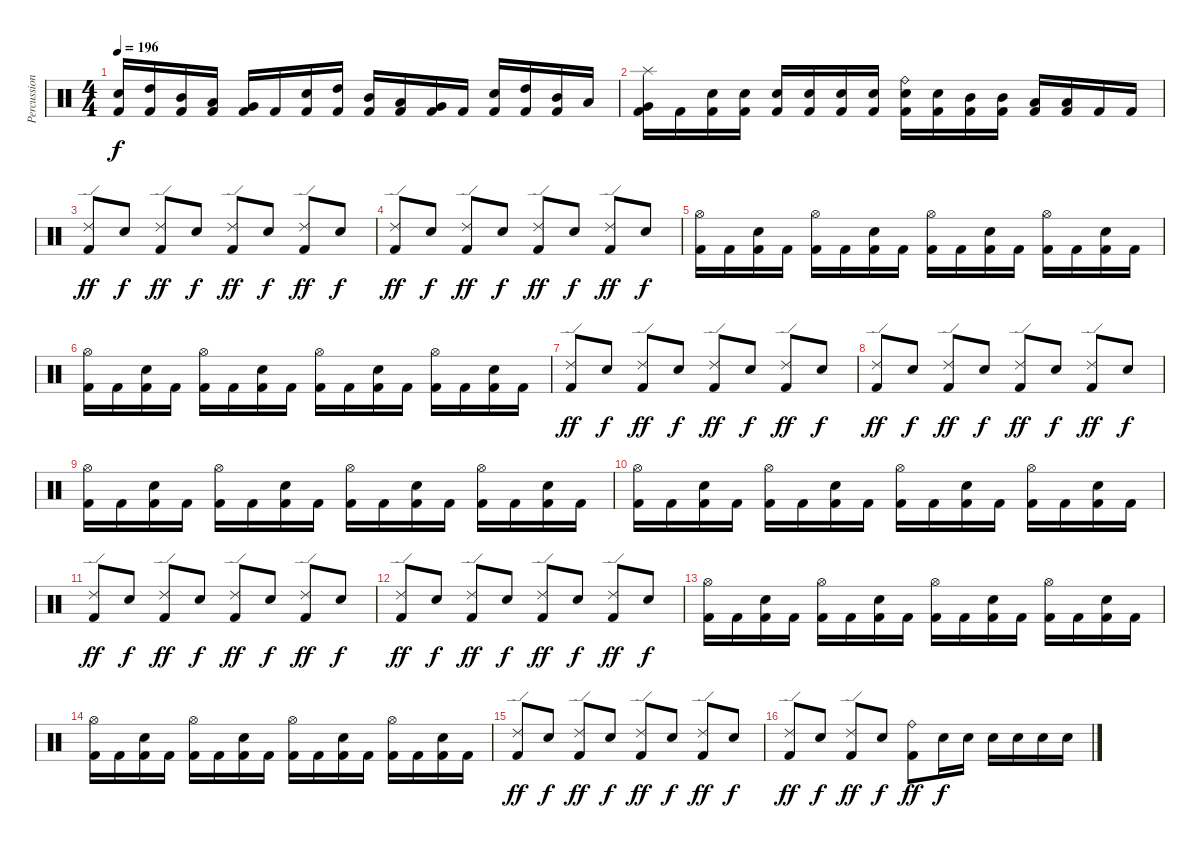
\track ("Percussions" "Percussion") {instrument percussion}
\staff {score}
\articulation defaults
\ts (4 4)
\tempo 196
\clef neutral
\ks c
("Electric Snare (hit)" "Kick (hit) 2").16{dy f} ("High Tom (hit)" "Kick (hit) 2").16 ("Mid Tom (hit)" "Kick (hit) 2").16 ("Low Tom (hit)" "Kick (hit) 2").16 ("Very Low Tom (hit)" "Kick (hit) 2").16 "Kick (hit) 2".16 ("Electric Snare (hit)" "Kick (hit) 2").16 ("High Tom (hit)" "Kick (hit) 2").16 ("Mid Tom (hit)" "Kick (hit) 2").16 ("Low Tom (hit)" "Kick (hit) 2").16 ("Very Low Tom (hit)" "Kick (hit) 2").16 "Kick (hit) 2".16 ("Electric Snare (hit)" "Kick (hit) 2").16 ("High Tom (hit)" "Kick (hit) 2").16 ("Mid Tom (hit)" "Kick (hit) 2").16 "Low Tom (hit)".16 |
("Splash (hit)" "Very Low Tom (hit)" "Kick (hit) 2").16 "Kick (hit) 2".16 ("Electric Snare (hit)" "Kick (hit) 2").16 ("Electric Snare (hit)" "Kick (hit) 2").16 ("Electric Snare (hit)" "Kick (hit) 2").16 ("Electric Snare (hit)" "Kick (hit) 2").16 ("Electric Snare (hit)" "Kick (hit) 2").16 ("Electric Snare (hit)" "Kick (hit) 2").16 ("Ride (bell)" "Electric Snare (hit)" "Kick (hit) 2").16 ("Electric Snare (hit)" "Kick (hit) 2").16 ("Mid Tom (hit)" "Kick (hit) 2").16 ("Mid Tom (hit)" "Kick (hit) 2").16 ("Low Tom (hit)" "Kick (hit) 2").16 ("Low Tom (hit)" "Kick (hit) 2").16 "Kick (hit) 2".16 "Kick (hit) 2".16 |
("Ride (edge) 2" "Kick (hit) 2").8{dy ff} "Electric Snare (hit)".8{dy f} ("Ride (edge) 2" "Kick (hit) 2").8{dy ff} "Electric Snare (hit)".8{dy f} ("Ride (edge) 2" "Kick (hit) 2").8{dy ff} "Electric Snare (hit)".8{dy f} ("Ride (edge) 2" "Kick (hit) 2").8{dy ff} "Electric Snare (hit)".8{dy f} |
("Ride (edge) 2" "Kick (hit) 2").8{dy ff} "Electric Snare (hit)".8{dy f} ("Ride (edge) 2" "Kick (hit) 2").8{dy ff} "Electric Snare (hit)".8{dy f} ("Ride (edge) 2" "Kick (hit) 2").8{dy ff} "Electric Snare (hit)".8{dy f} ("Ride (edge) 2" "Kick (hit) 2").8{dy ff} "Electric Snare (hit)".8{dy f} |
("Hi-Hat (open)" "Kick (hit) 2").16 "Kick (hit) 2".16 ("Electric Snare (hit)" "Kick (hit) 2").16 "Kick (hit) 2".16 ("Hi-Hat (open)" "Kick (hit) 2").16 "Kick (hit) 2".16 ("Electric Snare (hit)" "Kick (hit) 2").16 "Kick (hit) 2".16 ("Hi-Hat (open)" "Kick (hit) 2").16 "Kick (hit) 2".16 ("Electric Snare (hit)" "Kick (hit) 2").16 "Kick (hit) 2".16 ("Hi-Hat (open)" "Kick (hit) 2").16 "Kick (hit) 2".16 ("Electric Snare (hit)" "Kick (hit) 2").16 "Kick (hit) 2".16 |
("Hi-Hat (open)" "Kick (hit) 2").16 "Kick (hit) 2".16 ("Electric Snare (hit)" "Kick (hit) 2").16 "Kick (hit) 2".16 ("Hi-Hat (open)" "Kick (hit) 2").16 "Kick (hit) 2".16 ("Electric Snare (hit)" "Kick (hit) 2").16 "Kick (hit) 2".16 ("Hi-Hat (open)" "Kick (hit) 2").16 "Kick (hit) 2".16 ("Electric Snare (hit)" "Kick (hit) 2").16 "Kick (hit) 2".16 ("Hi-Hat (open)" "Kick (hit) 2").16 "Kick (hit) 2".16 ("Electric Snare (hit)" "Kick (hit) 2").16 "Kick (hit) 2".16 |
("Ride (edge) 2" "Kick (hit) 2").8{dy ff} "Electric Snare (hit)".8{dy f} ("Ride (edge) 2" "Kick (hit) 2").8{dy ff} "Electric Snare (hit)".8{dy f} ("Ride (edge) 2" "Kick (hit) 2").8{dy ff} "Electric Snare (hit)".8{dy f} ("Ride (edge) 2" "Kick (hit) 2").8{dy ff} "Electric Snare (hit)".8{dy f} |
("Ride (edge) 2" "Kick (hit) 2").8{dy ff} "Electric Snare (hit)".8{dy f} ("Ride (edge) 2" "Kick (hit) 2").8{dy ff} "Electric Snare (hit)".8{dy f} ("Ride (edge) 2" "Kick (hit) 2").8{dy ff} "Electric Snare (hit)".8{dy f} ("Ride (edge) 2" "Kick (hit) 2").8{dy ff} "Electric Snare (hit)".8{dy f} |
("Hi-Hat (open)" "Kick (hit) 2").16 "Kick (hit) 2".16 ("Electric Snare (hit)" "Kick (hit) 2").16 "Kick (hit) 2".16 ("Hi-Hat (open)" "Kick (hit) 2").16 "Kick (hit) 2".16 ("Electric Snare (hit)" "Kick (hit) 2").16 "Kick (hit) 2".16 ("Hi-Hat (open)" "Kick (hit) 2").16 "Kick (hit) 2".16 ("Electric Snare (hit)" "Kick (hit) 2").16 "Kick (hit) 2".16 ("Hi-Hat (open)" "Kick (hit) 2").16 "Kick (hit) 2".16 ("Electric Snare (hit)" "Kick (hit) 2").16 "Kick (hit) 2".16 |
("Hi-Hat (open)" "Kick (hit) 2").16 "Kick (hit) 2".16 ("Electric Snare (hit)" "Kick (hit) 2").16 "Kick (hit) 2".16 ("Hi-Hat (open)" "Kick (hit) 2").16 "Kick (hit) 2".16 ("Electric Snare (hit)" "Kick (hit) 2").16 "Kick (hit) 2".16 ("Hi-Hat (open)" "Kick (hit) 2").16 "Kick (hit) 2".16 ("Electric Snare (hit)" "Kick (hit) 2").16 "Kick (hit) 2".16 ("Hi-Hat (open)" "Kick (hit) 2").16 "Kick (hit) 2".16 ("Electric Snare (hit)" "Kick (hit) 2").16 "Kick (hit) 2".16 |
("Ride (edge) 2" "Kick (hit) 2").8{dy ff} "Electric Snare (hit)".8{dy f} ("Ride (edge) 2" "Kick (hit) 2").8{dy ff} "Electric Snare (hit)".8{dy f} ("Ride (edge) 2" "Kick (hit) 2").8{dy ff} "Electric Snare (hit)".8{dy f} ("Ride (edge) 2" "Kick (hit) 2").8{dy ff} "Electric Snare (hit)".8{dy f} |
("Ride (edge) 2" "Kick (hit) 2").8{dy ff} "Electric Snare (hit)".8{dy f} ("Ride (edge) 2" "Kick (hit) 2").8{dy ff} "Electric Snare (hit)".8{dy f} ("Ride (edge) 2" "Kick (hit) 2").8{dy ff} "Electric Snare (hit)".8{dy f} ("Ride (edge) 2" "Kick (hit) 2").8{dy ff} "Electric Snare (hit)".8{dy f} |
("Hi-Hat (open)" "Kick (hit) 2").16 "Kick (hit) 2".16 ("Electric Snare (hit)" "Kick (hit) 2").16 "Kick (hit) 2".16 ("Hi-Hat (open)" "Kick (hit) 2").16 "Kick (hit) 2".16 ("Electric Snare (hit)" "Kick (hit) 2").16 "Kick (hit) 2".16 ("Hi-Hat (open)" "Kick (hit) 2").16 "Kick (hit) 2".16 ("Electric Snare (hit)" "Kick (hit) 2").16 "Kick (hit) 2".16 ("Hi-Hat (open)" "Kick (hit) 2").16 "Kick (hit) 2".16 ("Electric Snare (hit)" "Kick (hit) 2").16 "Kick (hit) 2".16 |
("Hi-Hat (open)" "Kick (hit) 2").16 "Kick (hit) 2".16 ("Electric Snare (hit)" "Kick (hit) 2").16 "Kick (hit) 2".16 ("Hi-Hat (open)" "Kick (hit) 2").16 "Kick (hit) 2".16 ("Electric Snare (hit)" "Kick (hit) 2").16 "Kick (hit) 2".16 ("Hi-Hat (open)" "Kick (hit) 2").16 "Kick (hit) 2".16 ("Electric Snare (hit)" "Kick (hit) 2").16 "Kick (hit) 2".16 ("Hi-Hat (open)" "Kick (hit) 2").16 "Kick (hit) 2".16 ("Electric Snare (hit)" "Kick (hit) 2").16 "Kick (hit) 2".16 |
("Ride (edge) 2" "Kick (hit) 2").8{dy ff} "Electric Snare (hit)".8{dy f} ("Ride (edge) 2" "Kick (hit) 2").8{dy ff} "Electric Snare (hit)".8{dy f} ("Ride (edge) 2" "Kick (hit) 2").8{dy ff} "Electric Snare (hit)".8{dy f} ("Ride (edge) 2" "Kick (hit) 2").8{dy ff} "Electric Snare (hit)".8{dy f} |
("Ride (edge) 2" "Kick (hit) 2").8{dy ff} "Electric Snare (hit)".8{dy f} ("Ride (edge) 2" "Kick (hit) 2").8{dy ff} "Electric Snare (hit)".8{dy f} ("Ride (bell)" "Kick (hit) 2").8{dy ff} "Electric Snare (hit)".16{dy f} "Electric Snare (hit)".16 "Electric Snare (hit)".16 "Electric Snare (hit)".16 "Electric Snare (hit)".16 "Electric Snare (hit)".16
